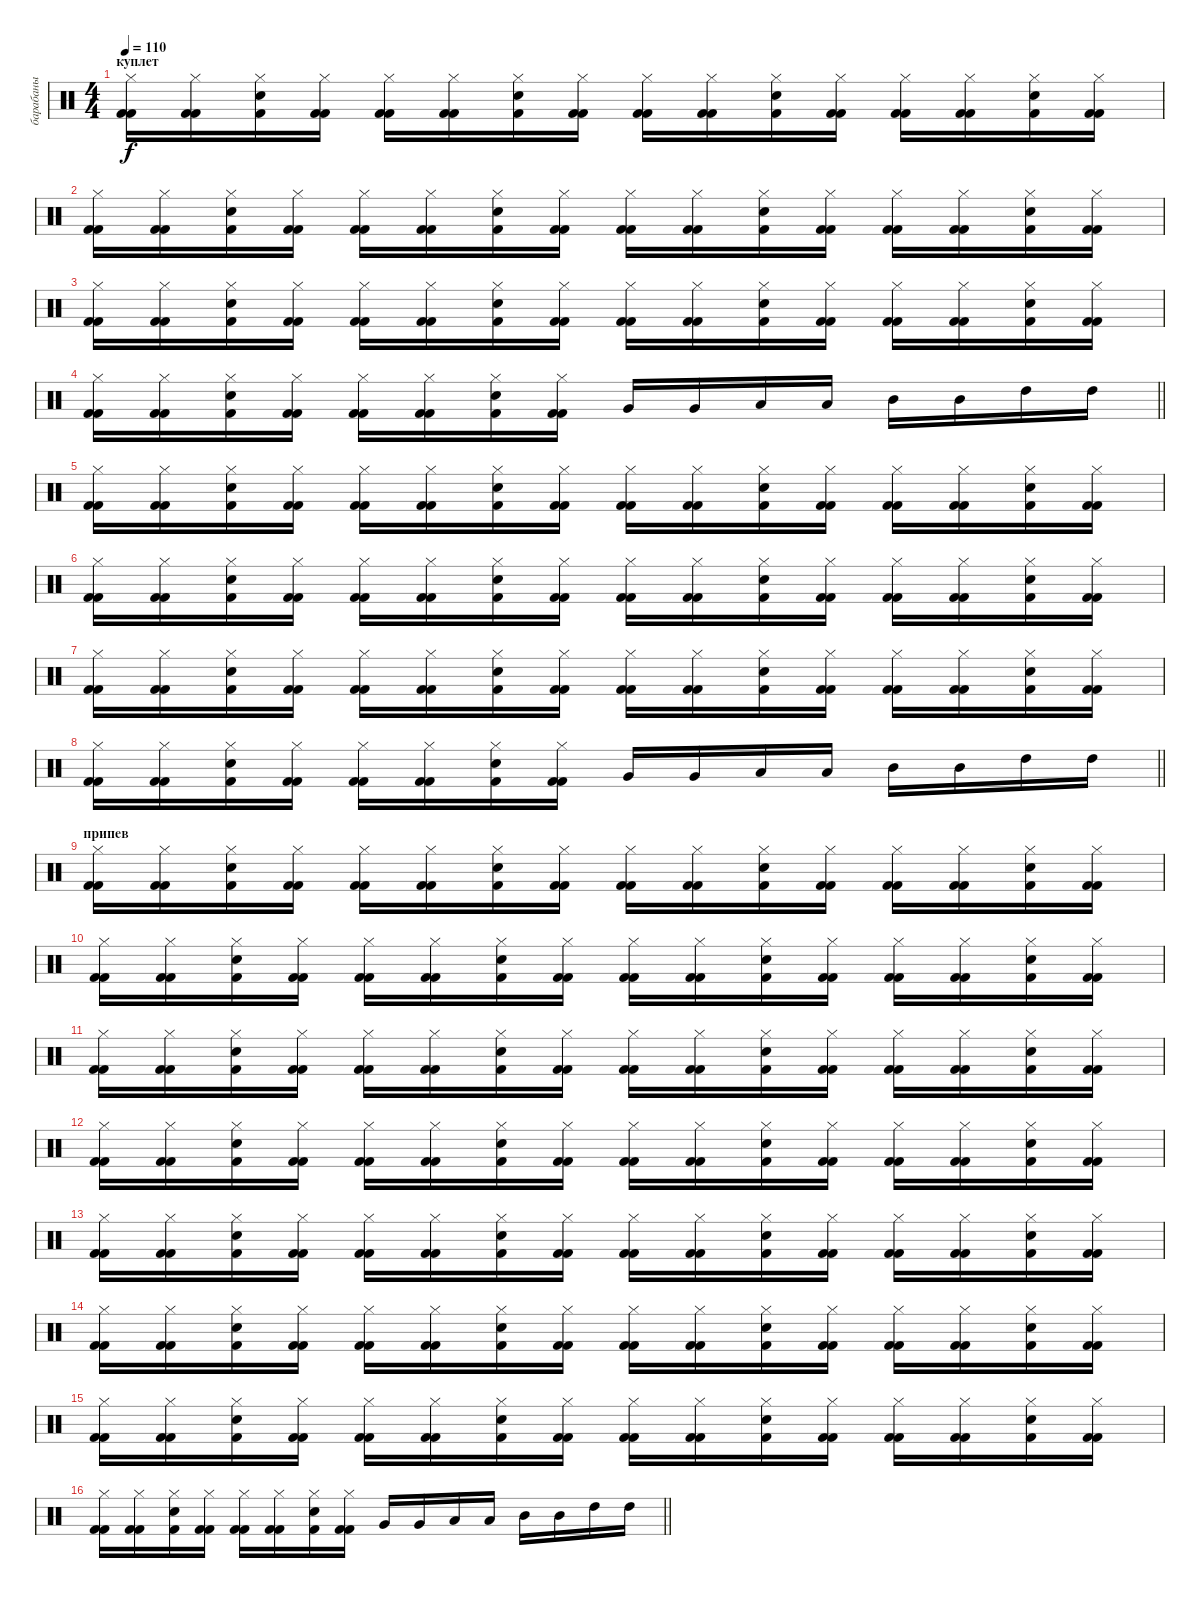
\track ("барабаны" "барабаны") {instrument percussion}
\staff {score}
\articulation defaults
\ts (4 4)
\section ("" "куплет")
\tempo 110
\clef neutral
\ks c
("Hi-Hat (closed)" "Kick (hit) 2" "Kick (hit) 2").16{dy f} ("Hi-Hat (closed)" "Kick (hit) 2" "Kick (hit) 2").16 ("Hi-Hat (closed)" "Snare (hit) 2" "Kick (hit) 2").16 ("Hi-Hat (closed)" "Kick (hit) 2" "Kick (hit) 2").16 ("Hi-Hat (closed)" "Kick (hit) 2" "Kick (hit) 2").16 ("Hi-Hat (closed)" "Kick (hit) 2" "Kick (hit) 2").16 ("Hi-Hat (closed)" "Snare (hit) 2" "Kick (hit) 2").16 ("Hi-Hat (closed)" "Kick (hit) 2" "Kick (hit) 2").16 ("Hi-Hat (closed)" "Kick (hit) 2" "Kick (hit) 2").16 ("Hi-Hat (closed)" "Kick (hit) 2" "Kick (hit) 2").16 ("Hi-Hat (closed)" "Snare (hit) 2" "Kick (hit) 2").16 ("Hi-Hat (closed)" "Kick (hit) 2" "Kick (hit) 2").16 ("Hi-Hat (closed)" "Kick (hit) 2" "Kick (hit) 2").16 ("Hi-Hat (closed)" "Kick (hit) 2" "Kick (hit) 2").16 ("Hi-Hat (closed)" "Snare (hit) 2" "Kick (hit) 2").16 ("Hi-Hat (closed)" "Kick (hit) 2" "Kick (hit) 2").16 |
("Hi-Hat (closed)" "Kick (hit) 2" "Kick (hit) 2").16 ("Hi-Hat (closed)" "Kick (hit) 2" "Kick (hit) 2").16 ("Hi-Hat (closed)" "Snare (hit) 2" "Kick (hit) 2").16 ("Hi-Hat (closed)" "Kick (hit) 2" "Kick (hit) 2").16 ("Hi-Hat (closed)" "Kick (hit) 2" "Kick (hit) 2").16 ("Hi-Hat (closed)" "Kick (hit) 2" "Kick (hit) 2").16 ("Hi-Hat (closed)" "Snare (hit) 2" "Kick (hit) 2").16 ("Hi-Hat (closed)" "Kick (hit) 2" "Kick (hit) 2").16 ("Hi-Hat (closed)" "Kick (hit) 2" "Kick (hit) 2").16 ("Hi-Hat (closed)" "Kick (hit) 2" "Kick (hit) 2").16 ("Hi-Hat (closed)" "Snare (hit) 2" "Kick (hit) 2").16 ("Hi-Hat (closed)" "Kick (hit) 2" "Kick (hit) 2").16 ("Hi-Hat (closed)" "Kick (hit) 2" "Kick (hit) 2").16 ("Hi-Hat (closed)" "Kick (hit) 2" "Kick (hit) 2").16 ("Hi-Hat (closed)" "Snare (hit) 2" "Kick (hit) 2").16 ("Hi-Hat (closed)" "Kick (hit) 2" "Kick (hit) 2").16 |
("Hi-Hat (closed)" "Kick (hit) 2" "Kick (hit) 2").16 ("Hi-Hat (closed)" "Kick (hit) 2" "Kick (hit) 2").16 ("Hi-Hat (closed)" "Snare (hit) 2" "Kick (hit) 2").16 ("Hi-Hat (closed)" "Kick (hit) 2" "Kick (hit) 2").16 ("Hi-Hat (closed)" "Kick (hit) 2" "Kick (hit) 2").16 ("Hi-Hat (closed)" "Kick (hit) 2" "Kick (hit) 2").16 ("Hi-Hat (closed)" "Snare (hit) 2" "Kick (hit) 2").16 ("Hi-Hat (closed)" "Kick (hit) 2" "Kick (hit) 2").16 ("Hi-Hat (closed)" "Kick (hit) 2" "Kick (hit) 2").16 ("Hi-Hat (closed)" "Kick (hit) 2" "Kick (hit) 2").16 ("Hi-Hat (closed)" "Snare (hit) 2" "Kick (hit) 2").16 ("Hi-Hat (closed)" "Kick (hit) 2" "Kick (hit) 2").16 ("Hi-Hat (closed)" "Kick (hit) 2" "Kick (hit) 2").16 ("Hi-Hat (closed)" "Kick (hit) 2" "Kick (hit) 2").16 ("Hi-Hat (closed)" "Snare (hit) 2" "Kick (hit) 2").16 ("Hi-Hat (closed)" "Kick (hit) 2" "Kick (hit) 2").16 |
\barLineRight lightlight
("Hi-Hat (closed)" "Kick (hit) 2" "Kick (hit) 2").16 ("Hi-Hat (closed)" "Kick (hit) 2" "Kick (hit) 2").16 ("Hi-Hat (closed)" "Snare (hit) 2" "Kick (hit) 2").16 ("Hi-Hat (closed)" "Kick (hit) 2" "Kick (hit) 2").16 ("Hi-Hat (closed)" "Kick (hit) 2" "Kick (hit) 2").16 ("Hi-Hat (closed)" "Kick (hit) 2" "Kick (hit) 2").16 ("Hi-Hat (closed)" "Snare (hit) 2" "Kick (hit) 2").16 ("Hi-Hat (closed)" "Kick (hit) 2" "Kick (hit) 2").16 "Very Low Tom (hit)".16 "Very Low Tom (hit)".16 "Low Tom (hit)".16 "Low Tom (hit)".16 "Mid Tom (hit)".16 "Mid Tom (hit)".16 "High Tom (hit)".16 "High Tom (hit)".16 |
("Hi-Hat (closed)" "Kick (hit) 2" "Kick (hit) 2").16 ("Hi-Hat (closed)" "Kick (hit) 2" "Kick (hit) 2").16 ("Hi-Hat (closed)" "Snare (hit) 2" "Kick (hit) 2").16 ("Hi-Hat (closed)" "Kick (hit) 2" "Kick (hit) 2").16 ("Hi-Hat (closed)" "Kick (hit) 2" "Kick (hit) 2").16 ("Hi-Hat (closed)" "Kick (hit) 2" "Kick (hit) 2").16 ("Hi-Hat (closed)" "Snare (hit) 2" "Kick (hit) 2").16 ("Hi-Hat (closed)" "Kick (hit) 2" "Kick (hit) 2").16 ("Hi-Hat (closed)" "Kick (hit) 2" "Kick (hit) 2").16 ("Hi-Hat (closed)" "Kick (hit) 2" "Kick (hit) 2").16 ("Hi-Hat (closed)" "Snare (hit) 2" "Kick (hit) 2").16 ("Hi-Hat (closed)" "Kick (hit) 2" "Kick (hit) 2").16 ("Hi-Hat (closed)" "Kick (hit) 2" "Kick (hit) 2").16 ("Hi-Hat (closed)" "Kick (hit) 2" "Kick (hit) 2").16 ("Hi-Hat (closed)" "Snare (hit) 2" "Kick (hit) 2").16 ("Hi-Hat (closed)" "Kick (hit) 2" "Kick (hit) 2").16 |
("Hi-Hat (closed)" "Kick (hit) 2" "Kick (hit) 2").16 ("Hi-Hat (closed)" "Kick (hit) 2" "Kick (hit) 2").16 ("Hi-Hat (closed)" "Snare (hit) 2" "Kick (hit) 2").16 ("Hi-Hat (closed)" "Kick (hit) 2" "Kick (hit) 2").16 ("Hi-Hat (closed)" "Kick (hit) 2" "Kick (hit) 2").16 ("Hi-Hat (closed)" "Kick (hit) 2" "Kick (hit) 2").16 ("Hi-Hat (closed)" "Snare (hit) 2" "Kick (hit) 2").16 ("Hi-Hat (closed)" "Kick (hit) 2" "Kick (hit) 2").16 ("Hi-Hat (closed)" "Kick (hit) 2" "Kick (hit) 2").16 ("Hi-Hat (closed)" "Kick (hit) 2" "Kick (hit) 2").16 ("Hi-Hat (closed)" "Snare (hit) 2" "Kick (hit) 2").16 ("Hi-Hat (closed)" "Kick (hit) 2" "Kick (hit) 2").16 ("Hi-Hat (closed)" "Kick (hit) 2" "Kick (hit) 2").16 ("Hi-Hat (closed)" "Kick (hit) 2" "Kick (hit) 2").16 ("Hi-Hat (closed)" "Snare (hit) 2" "Kick (hit) 2").16 ("Hi-Hat (closed)" "Kick (hit) 2" "Kick (hit) 2").16 |
("Hi-Hat (closed)" "Kick (hit) 2" "Kick (hit) 2").16 ("Hi-Hat (closed)" "Kick (hit) 2" "Kick (hit) 2").16 ("Hi-Hat (closed)" "Snare (hit) 2" "Kick (hit) 2").16 ("Hi-Hat (closed)" "Kick (hit) 2" "Kick (hit) 2").16 ("Hi-Hat (closed)" "Kick (hit) 2" "Kick (hit) 2").16 ("Hi-Hat (closed)" "Kick (hit) 2" "Kick (hit) 2").16 ("Hi-Hat (closed)" "Snare (hit) 2" "Kick (hit) 2").16 ("Hi-Hat (closed)" "Kick (hit) 2" "Kick (hit) 2").16 ("Hi-Hat (closed)" "Kick (hit) 2" "Kick (hit) 2").16 ("Hi-Hat (closed)" "Kick (hit) 2" "Kick (hit) 2").16 ("Hi-Hat (closed)" "Snare (hit) 2" "Kick (hit) 2").16 ("Hi-Hat (closed)" "Kick (hit) 2" "Kick (hit) 2").16 ("Hi-Hat (closed)" "Kick (hit) 2" "Kick (hit) 2").16 ("Hi-Hat (closed)" "Kick (hit) 2" "Kick (hit) 2").16 ("Hi-Hat (closed)" "Snare (hit) 2" "Kick (hit) 2").16 ("Hi-Hat (closed)" "Kick (hit) 2" "Kick (hit) 2").16 |
\barLineRight lightlight
("Hi-Hat (closed)" "Kick (hit) 2" "Kick (hit) 2").16 ("Hi-Hat (closed)" "Kick (hit) 2" "Kick (hit) 2").16 ("Hi-Hat (closed)" "Snare (hit) 2" "Kick (hit) 2").16 ("Hi-Hat (closed)" "Kick (hit) 2" "Kick (hit) 2").16 ("Hi-Hat (closed)" "Kick (hit) 2" "Kick (hit) 2").16 ("Hi-Hat (closed)" "Kick (hit) 2" "Kick (hit) 2").16 ("Hi-Hat (closed)" "Snare (hit) 2" "Kick (hit) 2").16 ("Hi-Hat (closed)" "Kick (hit) 2" "Kick (hit) 2").16 "Very Low Tom (hit)".16 "Very Low Tom (hit)".16 "Low Tom (hit)".16 "Low Tom (hit)".16 "Mid Tom (hit)".16 "Mid Tom (hit)".16 "High Tom (hit)".16 "High Tom (hit)".16 |
\section ("" "припев")
("Hi-Hat (closed)" "Kick (hit) 2" "Kick (hit) 2").16 ("Hi-Hat (closed)" "Kick (hit) 2" "Kick (hit) 2").16 ("Hi-Hat (closed)" "Snare (hit) 2" "Kick (hit) 2").16 ("Hi-Hat (closed)" "Kick (hit) 2" "Kick (hit) 2").16 ("Hi-Hat (closed)" "Kick (hit) 2" "Kick (hit) 2").16 ("Hi-Hat (closed)" "Kick (hit) 2" "Kick (hit) 2").16 ("Hi-Hat (closed)" "Snare (hit) 2" "Kick (hit) 2").16 ("Hi-Hat (closed)" "Kick (hit) 2" "Kick (hit) 2").16 ("Hi-Hat (closed)" "Kick (hit) 2" "Kick (hit) 2").16 ("Hi-Hat (closed)" "Kick (hit) 2" "Kick (hit) 2").16 ("Hi-Hat (closed)" "Snare (hit) 2" "Kick (hit) 2").16 ("Hi-Hat (closed)" "Kick (hit) 2" "Kick (hit) 2").16 ("Hi-Hat (closed)" "Kick (hit) 2" "Kick (hit) 2").16 ("Hi-Hat (closed)" "Kick (hit) 2" "Kick (hit) 2").16 ("Hi-Hat (closed)" "Snare (hit) 2" "Kick (hit) 2").16 ("Hi-Hat (closed)" "Kick (hit) 2" "Kick (hit) 2").16 |
("Hi-Hat (closed)" "Kick (hit) 2" "Kick (hit) 2").16 ("Hi-Hat (closed)" "Kick (hit) 2" "Kick (hit) 2").16 ("Hi-Hat (closed)" "Snare (hit) 2" "Kick (hit) 2").16 ("Hi-Hat (closed)" "Kick (hit) 2" "Kick (hit) 2").16 ("Hi-Hat (closed)" "Kick (hit) 2" "Kick (hit) 2").16 ("Hi-Hat (closed)" "Kick (hit) 2" "Kick (hit) 2").16 ("Hi-Hat (closed)" "Snare (hit) 2" "Kick (hit) 2").16 ("Hi-Hat (closed)" "Kick (hit) 2" "Kick (hit) 2").16 ("Hi-Hat (closed)" "Kick (hit) 2" "Kick (hit) 2").16 ("Hi-Hat (closed)" "Kick (hit) 2" "Kick (hit) 2").16 ("Hi-Hat (closed)" "Snare (hit) 2" "Kick (hit) 2").16 ("Hi-Hat (closed)" "Kick (hit) 2" "Kick (hit) 2").16 ("Hi-Hat (closed)" "Kick (hit) 2" "Kick (hit) 2").16 ("Hi-Hat (closed)" "Kick (hit) 2" "Kick (hit) 2").16 ("Hi-Hat (closed)" "Snare (hit) 2" "Kick (hit) 2").16 ("Hi-Hat (closed)" "Kick (hit) 2" "Kick (hit) 2").16 |
("Hi-Hat (closed)" "Kick (hit) 2" "Kick (hit) 2").16 ("Hi-Hat (closed)" "Kick (hit) 2" "Kick (hit) 2").16 ("Hi-Hat (closed)" "Snare (hit) 2" "Kick (hit) 2").16 ("Hi-Hat (closed)" "Kick (hit) 2" "Kick (hit) 2").16 ("Hi-Hat (closed)" "Kick (hit) 2" "Kick (hit) 2").16 ("Hi-Hat (closed)" "Kick (hit) 2" "Kick (hit) 2").16 ("Hi-Hat (closed)" "Snare (hit) 2" "Kick (hit) 2").16 ("Hi-Hat (closed)" "Kick (hit) 2" "Kick (hit) 2").16 ("Hi-Hat (closed)" "Kick (hit) 2" "Kick (hit) 2").16 ("Hi-Hat (closed)" "Kick (hit) 2" "Kick (hit) 2").16 ("Hi-Hat (closed)" "Snare (hit) 2" "Kick (hit) 2").16 ("Hi-Hat (closed)" "Kick (hit) 2" "Kick (hit) 2").16 ("Hi-Hat (closed)" "Kick (hit) 2" "Kick (hit) 2").16 ("Hi-Hat (closed)" "Kick (hit) 2" "Kick (hit) 2").16 ("Hi-Hat (closed)" "Snare (hit) 2" "Kick (hit) 2").16 ("Hi-Hat (closed)" "Kick (hit) 2" "Kick (hit) 2").16 |
("Hi-Hat (closed)" "Kick (hit) 2" "Kick (hit) 2").16 ("Hi-Hat (closed)" "Kick (hit) 2" "Kick (hit) 2").16 ("Hi-Hat (closed)" "Snare (hit) 2" "Kick (hit) 2").16 ("Hi-Hat (closed)" "Kick (hit) 2" "Kick (hit) 2").16 ("Hi-Hat (closed)" "Kick (hit) 2" "Kick (hit) 2").16 ("Hi-Hat (closed)" "Kick (hit) 2" "Kick (hit) 2").16 ("Hi-Hat (closed)" "Snare (hit) 2" "Kick (hit) 2").16 ("Hi-Hat (closed)" "Kick (hit) 2" "Kick (hit) 2").16 ("Hi-Hat (closed)" "Kick (hit) 2" "Kick (hit) 2").16 ("Hi-Hat (closed)" "Kick (hit) 2" "Kick (hit) 2").16 ("Hi-Hat (closed)" "Snare (hit) 2" "Kick (hit) 2").16 ("Hi-Hat (closed)" "Kick (hit) 2" "Kick (hit) 2").16 ("Hi-Hat (closed)" "Kick (hit) 2" "Kick (hit) 2").16 ("Hi-Hat (closed)" "Kick (hit) 2" "Kick (hit) 2").16 ("Hi-Hat (closed)" "Snare (hit) 2" "Kick (hit) 2").16 ("Hi-Hat (closed)" "Kick (hit) 2" "Kick (hit) 2").16 |
("Hi-Hat (closed)" "Kick (hit) 2" "Kick (hit) 2").16 ("Hi-Hat (closed)" "Kick (hit) 2" "Kick (hit) 2").16 ("Hi-Hat (closed)" "Snare (hit) 2" "Kick (hit) 2").16 ("Hi-Hat (closed)" "Kick (hit) 2" "Kick (hit) 2").16 ("Hi-Hat (closed)" "Kick (hit) 2" "Kick (hit) 2").16 ("Hi-Hat (closed)" "Kick (hit) 2" "Kick (hit) 2").16 ("Hi-Hat (closed)" "Snare (hit) 2" "Kick (hit) 2").16 ("Hi-Hat (closed)" "Kick (hit) 2" "Kick (hit) 2").16 ("Hi-Hat (closed)" "Kick (hit) 2" "Kick (hit) 2").16 ("Hi-Hat (closed)" "Kick (hit) 2" "Kick (hit) 2").16 ("Hi-Hat (closed)" "Snare (hit) 2" "Kick (hit) 2").16 ("Hi-Hat (closed)" "Kick (hit) 2" "Kick (hit) 2").16 ("Hi-Hat (closed)" "Kick (hit) 2" "Kick (hit) 2").16 ("Hi-Hat (closed)" "Kick (hit) 2" "Kick (hit) 2").16 ("Hi-Hat (closed)" "Snare (hit) 2" "Kick (hit) 2").16 ("Hi-Hat (closed)" "Kick (hit) 2" "Kick (hit) 2").16 |
("Hi-Hat (closed)" "Kick (hit) 2" "Kick (hit) 2").16 ("Hi-Hat (closed)" "Kick (hit) 2" "Kick (hit) 2").16 ("Hi-Hat (closed)" "Snare (hit) 2" "Kick (hit) 2").16 ("Hi-Hat (closed)" "Kick (hit) 2" "Kick (hit) 2").16 ("Hi-Hat (closed)" "Kick (hit) 2" "Kick (hit) 2").16 ("Hi-Hat (closed)" "Kick (hit) 2" "Kick (hit) 2").16 ("Hi-Hat (closed)" "Snare (hit) 2" "Kick (hit) 2").16 ("Hi-Hat (closed)" "Kick (hit) 2" "Kick (hit) 2").16 ("Hi-Hat (closed)" "Kick (hit) 2" "Kick (hit) 2").16 ("Hi-Hat (closed)" "Kick (hit) 2" "Kick (hit) 2").16 ("Hi-Hat (closed)" "Snare (hit) 2" "Kick (hit) 2").16 ("Hi-Hat (closed)" "Kick (hit) 2" "Kick (hit) 2").16 ("Hi-Hat (closed)" "Kick (hit) 2" "Kick (hit) 2").16 ("Hi-Hat (closed)" "Kick (hit) 2" "Kick (hit) 2").16 ("Hi-Hat (closed)" "Snare (hit) 2" "Kick (hit) 2").16 ("Hi-Hat (closed)" "Kick (hit) 2" "Kick (hit) 2").16 |
("Hi-Hat (closed)" "Kick (hit) 2" "Kick (hit) 2").16 ("Hi-Hat (closed)" "Kick (hit) 2" "Kick (hit) 2").16 ("Hi-Hat (closed)" "Snare (hit) 2" "Kick (hit) 2").16 ("Hi-Hat (closed)" "Kick (hit) 2" "Kick (hit) 2").16 ("Hi-Hat (closed)" "Kick (hit) 2" "Kick (hit) 2").16 ("Hi-Hat (closed)" "Kick (hit) 2" "Kick (hit) 2").16 ("Hi-Hat (closed)" "Snare (hit) 2" "Kick (hit) 2").16 ("Hi-Hat (closed)" "Kick (hit) 2" "Kick (hit) 2").16 ("Hi-Hat (closed)" "Kick (hit) 2" "Kick (hit) 2").16 ("Hi-Hat (closed)" "Kick (hit) 2" "Kick (hit) 2").16 ("Hi-Hat (closed)" "Snare (hit) 2" "Kick (hit) 2").16 ("Hi-Hat (closed)" "Kick (hit) 2" "Kick (hit) 2").16 ("Hi-Hat (closed)" "Kick (hit) 2" "Kick (hit) 2").16 ("Hi-Hat (closed)" "Kick (hit) 2" "Kick (hit) 2").16 ("Hi-Hat (closed)" "Snare (hit) 2" "Kick (hit) 2").16 ("Hi-Hat (closed)" "Kick (hit) 2" "Kick (hit) 2").16 |
\barLineRight lightlight
("Hi-Hat (closed)" "Kick (hit) 2" "Kick (hit) 2").16 ("Hi-Hat (closed)" "Kick (hit) 2" "Kick (hit) 2").16 ("Hi-Hat (closed)" "Snare (hit) 2" "Kick (hit) 2").16 ("Hi-Hat (closed)" "Kick (hit) 2" "Kick (hit) 2").16 ("Hi-Hat (closed)" "Kick (hit) 2" "Kick (hit) 2").16 ("Hi-Hat (closed)" "Kick (hit) 2" "Kick (hit) 2").16 ("Hi-Hat (closed)" "Snare (hit) 2" "Kick (hit) 2").16 ("Hi-Hat (closed)" "Kick (hit) 2" "Kick (hit) 2").16 "Very Low Tom (hit)".16 "Very Low Tom (hit)".16 "Low Tom (hit)".16 "Low Tom (hit)".16 "Mid Tom (hit)".16 "Mid Tom (hit)".16 "High Tom (hit)".16 "High Tom (hit)".16
